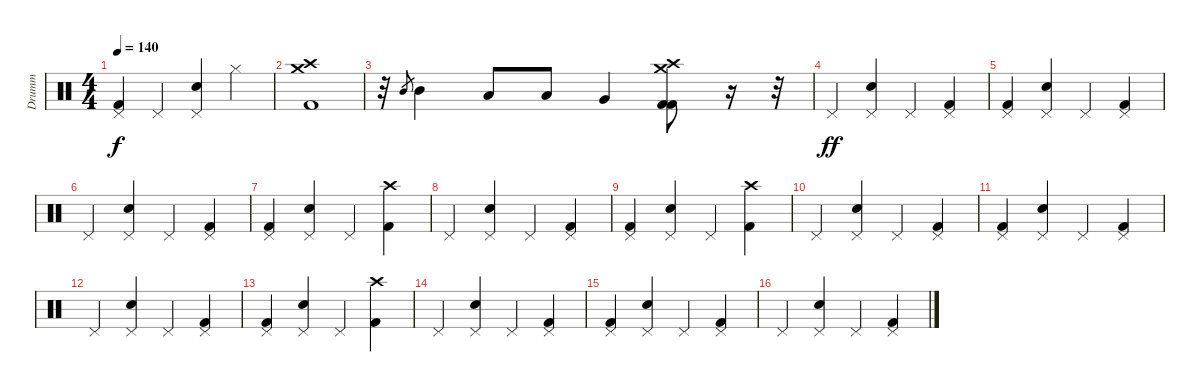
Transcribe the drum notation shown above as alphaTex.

\track ("Drumm" "Drumm") {instrument percussion}
\staff {score}
\articulation defaults
\ts (4 4)
\tempo 140
\clef neutral
\ks c
("Pedal Hi-Hat (hit)" "Kick (hit) 2").4{dy f} "Pedal Hi-Hat (hit)".4 ("Pedal Hi-Hat (hit)" "Snare (hit) 2").4 "Hi-Hat (closed)".4 |
("Crash medium (hit)" "Crash high (hit)" "Kick (hit) 2").1 |
r.32 "Mid Tom (hit)".8{gr} "Mid Tom (hit)".4 "Low Tom (hit)".8 "Low Tom (hit)".8 "Very Low Tom (hit)".4 ("Crash medium (hit)" "Crash high (hit)" "Kick (hit) 2" "Kick (hit) 2").8 r.16 r.32 |
"Pedal Hi-Hat (hit)".4{dy ff} ("Pedal Hi-Hat (hit)" "Snare (hit) 2").4 "Pedal Hi-Hat (hit)".4 ("Pedal Hi-Hat (hit)" "Kick (hit) 2").4 |
("Pedal Hi-Hat (hit)" "Kick (hit) 2").4 ("Pedal Hi-Hat (hit)" "Snare (hit) 2").4 "Pedal Hi-Hat (hit)".4 ("Pedal Hi-Hat (hit)" "Kick (hit) 2").4 |
"Pedal Hi-Hat (hit)".4 ("Pedal Hi-Hat (hit)" "Snare (hit) 2").4 "Pedal Hi-Hat (hit)".4 ("Pedal Hi-Hat (hit)" "Kick (hit) 2").4 |
("Pedal Hi-Hat (hit)" "Kick (hit) 2").4 ("Pedal Hi-Hat (hit)" "Snare (hit) 2").4 "Pedal Hi-Hat (hit)".4 ("Crash high (hit)" "Kick (hit) 2").4 |
"Pedal Hi-Hat (hit)".4 ("Pedal Hi-Hat (hit)" "Snare (hit) 2").4 "Pedal Hi-Hat (hit)".4 ("Pedal Hi-Hat (hit)" "Kick (hit) 2").4 |
("Pedal Hi-Hat (hit)" "Kick (hit) 2").4 ("Pedal Hi-Hat (hit)" "Snare (hit) 2").4 "Pedal Hi-Hat (hit)".4 ("Crash high (hit)" "Kick (hit) 2").4 |
"Pedal Hi-Hat (hit)".4 ("Pedal Hi-Hat (hit)" "Snare (hit) 2").4 "Pedal Hi-Hat (hit)".4 ("Pedal Hi-Hat (hit)" "Kick (hit) 2").4 |
("Pedal Hi-Hat (hit)" "Kick (hit) 2").4 ("Pedal Hi-Hat (hit)" "Snare (hit) 2").4 "Pedal Hi-Hat (hit)".4 ("Pedal Hi-Hat (hit)" "Kick (hit) 2").4 |
"Pedal Hi-Hat (hit)".4 ("Pedal Hi-Hat (hit)" "Snare (hit) 2").4 "Pedal Hi-Hat (hit)".4 ("Pedal Hi-Hat (hit)" "Kick (hit) 2").4 |
("Pedal Hi-Hat (hit)" "Kick (hit) 2").4 ("Pedal Hi-Hat (hit)" "Snare (hit) 2").4 "Pedal Hi-Hat (hit)".4 ("Crash high (hit)" "Kick (hit) 2").4 |
"Pedal Hi-Hat (hit)".4 ("Pedal Hi-Hat (hit)" "Snare (hit) 2").4 "Pedal Hi-Hat (hit)".4 ("Pedal Hi-Hat (hit)" "Kick (hit) 2").4 |
("Pedal Hi-Hat (hit)" "Kick (hit) 2").4 ("Pedal Hi-Hat (hit)" "Snare (hit) 2").4 "Pedal Hi-Hat (hit)".4 ("Pedal Hi-Hat (hit)" "Kick (hit) 2").4 |
"Pedal Hi-Hat (hit)".4 ("Pedal Hi-Hat (hit)" "Snare (hit) 2").4 "Pedal Hi-Hat (hit)".4 ("Pedal Hi-Hat (hit)" "Kick (hit) 2").4
